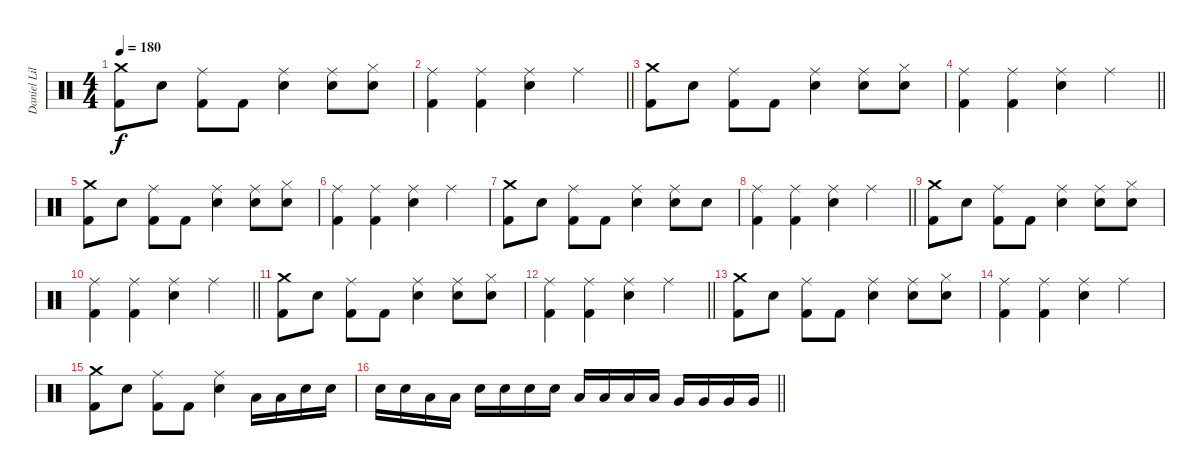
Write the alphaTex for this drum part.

\track ("Daniel Liljekvist" "Daniel Lil") {instrument percussion}
\staff {score}
\articulation defaults
\ts (4 4)
\section ("" "")
\tempo 180
\clef neutral
\ks c
("Crash medium (hit)" "Kick (hit) 2").8{dy f} "Electric Snare (hit)".8 ("Ride (middle)" "Kick (hit) 2").8 "Kick (hit) 2".8 ("Ride (middle)" "Electric Snare (hit)").4 ("Ride (middle)" "Electric Snare (hit)").8 ("Hi-Hat (closed)" "Electric Snare (hit)").8 |
\barLineRight lightlight
("Ride (middle)" "Kick (hit) 2").4 ("Ride (middle)" "Kick (hit) 2").4 ("Ride (middle)" "Electric Snare (hit)").4 "Ride (middle)".4 |
("Crash medium (hit)" "Kick (hit) 2").8 "Electric Snare (hit)".8 ("Ride (middle)" "Kick (hit) 2").8 "Kick (hit) 2".8 ("Ride (middle)" "Electric Snare (hit)").4 ("Ride (middle)" "Electric Snare (hit)").8 ("Hi-Hat (closed)" "Electric Snare (hit)").8 |
\barLineRight lightlight
("Ride (middle)" "Kick (hit) 2").4 ("Ride (middle)" "Kick (hit) 2").4 ("Ride (middle)" "Electric Snare (hit)").4 "Ride (middle)".4 |
("Crash medium (hit)" "Kick (hit) 2").8 "Electric Snare (hit)".8 ("Ride (middle)" "Kick (hit) 2").8 "Kick (hit) 2".8 ("Ride (middle)" "Electric Snare (hit)").4 ("Ride (middle)" "Electric Snare (hit)").8 ("Hi-Hat (closed)" "Electric Snare (hit)").8 |
("Ride (middle)" "Kick (hit) 2").4 ("Ride (middle)" "Kick (hit) 2").4 ("Ride (middle)" "Electric Snare (hit)").4 "Ride (middle)".4 |
("Crash medium (hit)" "Kick (hit) 2").8 "Electric Snare (hit)".8 ("Ride (middle)" "Kick (hit) 2").8 "Kick (hit) 2".8 ("Ride (middle)" "Electric Snare (hit)").4 ("Ride (middle)" "Electric Snare (hit)").8 "Electric Snare (hit)".8 |
\barLineRight lightlight
("Ride (middle)" "Kick (hit) 2").4 ("Ride (middle)" "Kick (hit) 2").4 ("Ride (middle)" "Electric Snare (hit)").4 "Ride (middle)".4 |
("Crash medium (hit)" "Kick (hit) 2").8 "Electric Snare (hit)".8 ("Ride (middle)" "Kick (hit) 2").8 "Kick (hit) 2".8 ("Ride (middle)" "Electric Snare (hit)").4 ("Ride (middle)" "Electric Snare (hit)").8 ("Hi-Hat (closed)" "Electric Snare (hit)").8 |
\barLineRight lightlight
("Ride (middle)" "Kick (hit) 2").4 ("Ride (middle)" "Kick (hit) 2").4 ("Ride (middle)" "Electric Snare (hit)").4 "Ride (middle)".4 |
("Crash medium (hit)" "Kick (hit) 2").8 "Electric Snare (hit)".8 ("Ride (middle)" "Kick (hit) 2").8 "Kick (hit) 2".8 ("Ride (middle)" "Electric Snare (hit)").4 ("Ride (middle)" "Electric Snare (hit)").8 ("Hi-Hat (closed)" "Electric Snare (hit)").8 |
\barLineRight lightlight
("Ride (middle)" "Kick (hit) 2").4 ("Ride (middle)" "Kick (hit) 2").4 ("Ride (middle)" "Electric Snare (hit)").4 "Ride (middle)".4 |
("Crash medium (hit)" "Kick (hit) 2").8 "Electric Snare (hit)".8 ("Ride (middle)" "Kick (hit) 2").8 "Kick (hit) 2".8 ("Ride (middle)" "Electric Snare (hit)").4 ("Ride (middle)" "Snare (hit)").8 ("Hi-Hat (closed)" "Electric Snare (hit)").8 |
("Ride (middle)" "Kick (hit) 2").4 ("Ride (middle)" "Kick (hit) 2").4 ("Ride (middle)" "Electric Snare (hit)").4 "Ride (middle)".4 |
("Crash medium (hit)" "Kick (hit) 2").8 "Electric Snare (hit)".8 ("Ride (middle)" "Kick (hit) 2").8 "Kick (hit) 2".8 ("Ride (middle)" "Electric Snare (hit)").4 "Low Tom (hit)".16 "Low Tom (hit)".16 "Electric Snare (hit)".16 "Electric Snare (hit)".16 |
\barLineRight lightlight "Electric Snare (hit)".16 "Electric Snare (hit)".16 "Low Tom (hit)".16 "Low Tom (hit)".16 "Electric Snare (hit)".16 "Electric Snare (hit)".16 "Electric Snare (hit)".16 "Electric Snare (hit)".16 "Low Tom (hit)".16 "Low Tom (hit)".16 "Low Tom (hit)".16 "Low Tom (hit)".16 "Very Low Tom (hit)".16 "Very Low Tom (hit)".16 "Very Low Tom (hit)".16 "Very Low Tom (hit)".16
